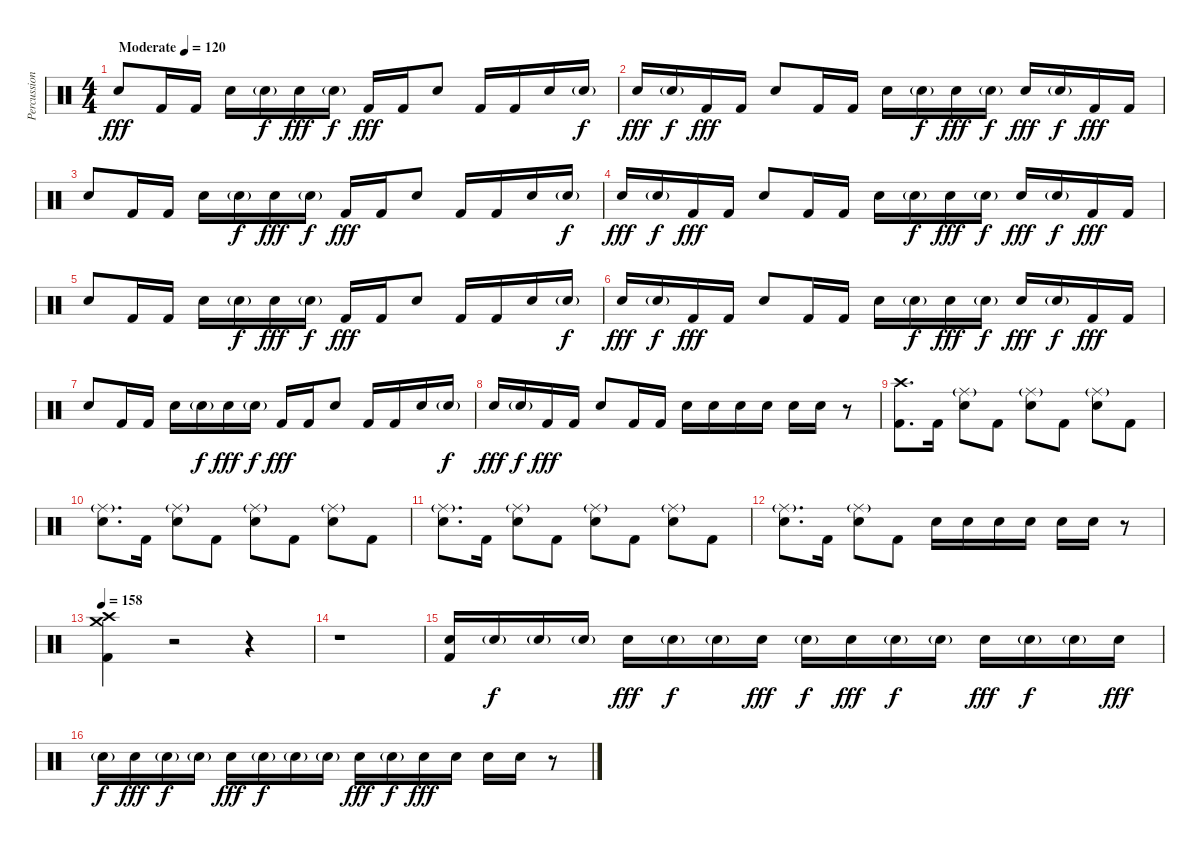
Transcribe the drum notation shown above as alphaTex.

\track ("Percussion" "Percussion") {instrument percussion}
\staff {score}
\articulation defaults
\ts (4 4)
\tempo (120 "Moderate")
\tempo 168
\tempo (120 "Moderate")
\clef neutral
\ks c "Electric Snare (hit)".8{dy fff} "Kick (hit) 2".16 "Kick (hit) 2".16 "Electric Snare (hit)".16 "Electric Snare (hit)"{g}.16{dy f} "Electric Snare (hit)".16{dy fff} "Electric Snare (hit)"{g}.16{dy f} "Kick (hit) 2".16{dy fff} "Kick (hit) 2".16 "Electric Snare (hit)".8 "Kick (hit) 2".16 "Kick (hit) 2".16 "Electric Snare (hit)".16 "Electric Snare (hit)"{g}.16{dy f}
|
"Electric Snare (hit)".16{dy fff} "Electric Snare (hit)"{g}.16{dy f} "Kick (hit) 2".16{dy fff} "Kick (hit) 2".16 "Electric Snare (hit)".8 "Kick (hit) 2".16 "Kick (hit) 2".16 "Electric Snare (hit)".16 "Electric Snare (hit)"{g}.16{dy f} "Electric Snare (hit)".16{dy fff} "Electric Snare (hit)"{g}.16{dy f} "Electric Snare (hit)".16{dy fff} "Electric Snare (hit)"{g}.16{dy f} "Kick (hit) 2".16{dy fff} "Kick (hit) 2".16 |
"Electric Snare (hit)".8 "Kick (hit) 2".16 "Kick (hit) 2".16 "Electric Snare (hit)".16 "Electric Snare (hit)"{g}.16{dy f} "Electric Snare (hit)".16{dy fff} "Electric Snare (hit)"{g}.16{dy f} "Kick (hit) 2".16{dy fff} "Kick (hit) 2".16 "Electric Snare (hit)".8 "Kick (hit) 2".16 "Kick (hit) 2".16 "Electric Snare (hit)".16 "Electric Snare (hit)"{g}.16{dy f} |
"Electric Snare (hit)".16{dy fff} "Electric Snare (hit)"{g}.16{dy f} "Kick (hit) 2".16{dy fff} "Kick (hit) 2".16 "Electric Snare (hit)".8 "Kick (hit) 2".16 "Kick (hit) 2".16 "Electric Snare (hit)".16 "Electric Snare (hit)"{g}.16{dy f} "Electric Snare (hit)".16{dy fff} "Electric Snare (hit)"{g}.16{dy f} "Electric Snare (hit)".16{dy fff} "Electric Snare (hit)"{g}.16{dy f} "Kick (hit) 2".16{dy fff} "Kick (hit) 2".16 |
"Electric Snare (hit)".8 "Kick (hit) 2".16 "Kick (hit) 2".16 "Electric Snare (hit)".16 "Electric Snare (hit)"{g}.16{dy f} "Electric Snare (hit)".16{dy fff} "Electric Snare (hit)"{g}.16{dy f} "Kick (hit) 2".16{dy fff} "Kick (hit) 2".16 "Electric Snare (hit)".8 "Kick (hit) 2".16 "Kick (hit) 2".16 "Electric Snare (hit)".16 "Electric Snare (hit)"{g}.16{dy f} |
"Electric Snare (hit)".16{dy fff} "Electric Snare (hit)"{g}.16{dy f} "Kick (hit) 2".16{dy fff} "Kick (hit) 2".16 "Electric Snare (hit)".8 "Kick (hit) 2".16 "Kick (hit) 2".16 "Electric Snare (hit)".16 "Electric Snare (hit)"{g}.16{dy f} "Electric Snare (hit)".16{dy fff} "Electric Snare (hit)"{g}.16{dy f} "Electric Snare (hit)".16{dy fff} "Electric Snare (hit)"{g}.16{dy f} "Kick (hit) 2".16{dy fff} "Kick (hit) 2".16 |
"Electric Snare (hit)".8 "Kick (hit) 2".16 "Kick (hit) 2".16 "Electric Snare (hit)".16 "Electric Snare (hit)"{g}.16{dy f} "Electric Snare (hit)".16{dy fff} "Electric Snare (hit)"{g}.16{dy f} "Kick (hit) 2".16{dy fff} "Kick (hit) 2".16 "Electric Snare (hit)".8 "Kick (hit) 2".16 "Kick (hit) 2".16 "Electric Snare (hit)".16 "Electric Snare (hit)"{g}.16{dy f} |
"Electric Snare (hit)".16{dy fff} "Electric Snare (hit)"{g}.16{dy f} "Kick (hit) 2".16{dy fff} "Kick (hit) 2".16 "Electric Snare (hit)".8 "Kick (hit) 2".16 "Kick (hit) 2".16 "Electric Snare (hit)".16 "Electric Snare (hit)".16 "Electric Snare (hit)".16 "Electric Snare (hit)".16 "Electric Snare (hit)".16 "Electric Snare (hit)".16 r.8 |
("Crash high (hit)" "Kick (hit) 2").8{d} "Kick (hit) 2".16 ("Ride (middle)"{g} "Electric Snare (hit)").8 "Kick (hit) 2".8 ("Ride (middle)"{g} "Electric Snare (hit)").8 "Kick (hit) 2".8 ("Ride (middle)"{g} "Electric Snare (hit)").8 "Kick (hit) 2".8 |
("Ride (middle)"{g} "Electric Snare (hit)").8{d} "Kick (hit) 2".16 ("Ride (middle)"{g} "Electric Snare (hit)").8 "Kick (hit) 2".8 ("Ride (middle)"{g} "Electric Snare (hit)").8 "Kick (hit) 2".8 ("Ride (middle)"{g} "Electric Snare (hit)").8 "Kick (hit) 2".8 |
("Ride (middle)"{g} "Electric Snare (hit)").8{d} "Kick (hit) 2".16 ("Ride (middle)"{g} "Electric Snare (hit)").8 "Kick (hit) 2".8 ("Ride (middle)"{g} "Electric Snare (hit)").8 "Kick (hit) 2".8 ("Ride (middle)"{g} "Electric Snare (hit)").8 "Kick (hit) 2".8 |
("Ride (middle)"{g} "Electric Snare (hit)").8{d} "Kick (hit) 2".16 ("Ride (middle)"{g} "Electric Snare (hit)").8 "Kick (hit) 2".8 "Electric Snare (hit)".16 "Electric Snare (hit)".16 "Electric Snare (hit)".16 "Electric Snare (hit)".16 "Electric Snare (hit)".16 "Electric Snare (hit)".16 r.8 |
\tempo 158
("Crash high (hit)" "Crash medium (hit)" "Kick (hit) 2").4 r.2 r.4 |
r.1 |
("Electric Snare (hit)" "Kick (hit) 2").16 "Electric Snare (hit)"{g}.16{dy f} "Electric Snare (hit)"{g}.16 "Electric Snare (hit)"{g}.16 "Electric Snare (hit)".16{dy fff} "Electric Snare (hit)"{g}.16{dy f} "Electric Snare (hit)"{g}.16 "Electric Snare (hit)".16{dy fff} "Electric Snare (hit)"{g}.16{dy f} "Electric Snare (hit)".16{dy fff} "Electric Snare (hit)"{g}.16{dy f} "Electric Snare (hit)"{g}.16 "Electric Snare (hit)".16{dy fff} "Electric Snare (hit)"{g}.16{dy f} "Electric Snare (hit)"{g}.16 "Electric Snare (hit)".16{dy fff} |
"Electric Snare (hit)"{g}.16{dy f} "Electric Snare (hit)".16{dy fff} "Electric Snare (hit)"{g}.16{dy f} "Electric Snare (hit)"{g}.16 "Electric Snare (hit)".16{dy fff} "Electric Snare (hit)"{g}.16{dy f} "Electric Snare (hit)"{g}.16 "Electric Snare (hit)"{g}.16 "Electric Snare (hit)".16{dy fff} "Electric Snare (hit)"{g}.16{dy f} "Electric Snare (hit)".16{dy fff} "Electric Snare (hit)".16 "Electric Snare (hit)".16 "Electric Snare (hit)".16 r.8
